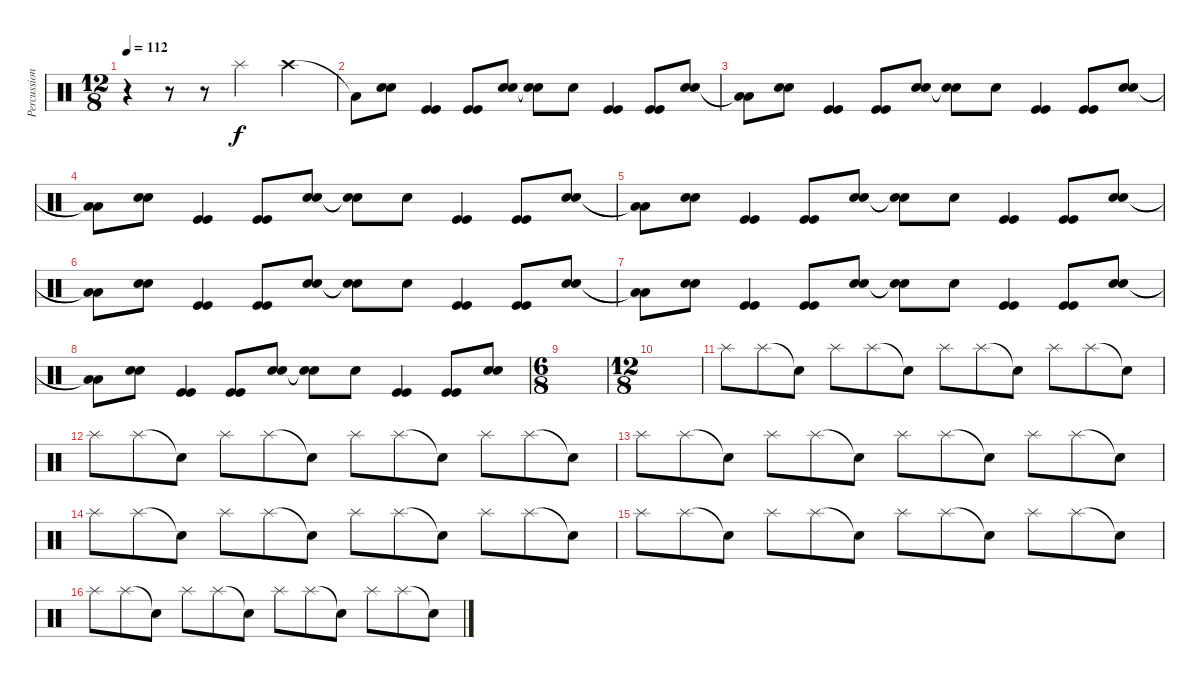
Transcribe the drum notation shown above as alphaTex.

\track ("Percussions" "Percussion") {instrument percussion}
\staff {score}
\articulation defaults
\ts (12 8)
\tempo 112
\clef neutral
\ks c
r.4{dy f} r.8 r.8 "Splash (hit)".2 "Crash high (hit)".2 |
"Low Floor Tom (hit)"{t}.8 ("Snare (hit) 2" "Snare (hit) 2").8 ("Kick (hit)" "Kick (hit)").4 ("Kick (hit)" "Kick (hit)").8 ("Snare (hit) 2" "Snare (hit) 2").8 ("Snare (hit)"{t} "Snare (hit)"{t}).8 "Snare (hit) 2".8 ("Kick (hit)" "Kick (hit)").4 ("Kick (hit)" "Kick (hit)").8 ("Snare (hit) 2" "Snare (hit) 2").8 |
("Low Floor Tom (hit)"{t} "Low Floor Tom (hit)"{t}).8 ("Snare (hit) 2" "Snare (hit) 2").8 ("Kick (hit)" "Kick (hit)").4 ("Kick (hit)" "Kick (hit)").8 ("Snare (hit) 2" "Snare (hit) 2").8 ("Snare (hit)"{t} "Snare (hit)"{t}).8 "Snare (hit) 2".8 ("Kick (hit)" "Kick (hit)").4 ("Kick (hit)" "Kick (hit)").8 ("Snare (hit) 2" "Snare (hit) 2").8 |
("Low Floor Tom (hit)"{t} "Low Floor Tom (hit)"{t}).8 ("Snare (hit) 2" "Snare (hit) 2").8 ("Kick (hit)" "Kick (hit)").4 ("Kick (hit)" "Kick (hit)").8 ("Snare (hit) 2" "Snare (hit) 2").8 ("Snare (hit)"{t} "Snare (hit)"{t}).8 "Snare (hit) 2".8 ("Kick (hit)" "Kick (hit)").4 ("Kick (hit)" "Kick (hit)").8 ("Snare (hit) 2" "Snare (hit) 2").8 |
("Low Floor Tom (hit)"{t} "Low Floor Tom (hit)"{t}).8 ("Snare (hit) 2" "Snare (hit) 2").8 ("Kick (hit)" "Kick (hit)").4 ("Kick (hit)" "Kick (hit)").8 ("Snare (hit) 2" "Snare (hit) 2").8 ("Snare (hit)"{t} "Snare (hit)"{t}).8 "Snare (hit) 2".8 ("Kick (hit)" "Kick (hit)").4 ("Kick (hit)" "Kick (hit)").8 ("Snare (hit) 2" "Snare (hit) 2").8 |
("Low Floor Tom (hit)"{t} "Low Floor Tom (hit)"{t}).8 ("Snare (hit) 2" "Snare (hit) 2").8 ("Kick (hit)" "Kick (hit)").4 ("Kick (hit)" "Kick (hit)").8 ("Snare (hit) 2" "Snare (hit) 2").8 ("Snare (hit)"{t} "Snare (hit)"{t}).8 "Snare (hit) 2".8 ("Kick (hit)" "Kick (hit)").4 ("Kick (hit)" "Kick (hit)").8 ("Snare (hit) 2" "Snare (hit) 2").8 |
("Low Floor Tom (hit)"{t} "Low Floor Tom (hit)"{t}).8 ("Snare (hit) 2" "Snare (hit) 2").8 ("Kick (hit)" "Kick (hit)").4 ("Kick (hit)" "Kick (hit)").8 ("Snare (hit) 2" "Snare (hit) 2").8 ("Snare (hit)"{t} "Snare (hit)"{t}).8 "Snare (hit) 2".8 ("Kick (hit)" "Kick (hit)").4 ("Kick (hit)" "Kick (hit)").8 ("Snare (hit) 2" "Snare (hit) 2").8 |
("Low Floor Tom (hit)"{t} "Low Floor Tom (hit)"{t}).8 ("Snare (hit) 2" "Snare (hit) 2").8 ("Kick (hit)" "Kick (hit)").4 ("Kick (hit)" "Kick (hit)").8 ("Snare (hit) 2" "Snare (hit) 2").8 ("Snare (hit)"{t} "Snare (hit)"{t}).8 "Snare (hit) 2".8 ("Kick (hit)" "Kick (hit)").4 ("Kick (hit)" "Kick (hit)").8 ("Snare (hit) 2" "Snare (hit) 2").8 |
\ts (6 8)
|
\ts (12 8)
|
"Splash (hit)".8 "Splash (hit)".8 "Snare (hit)"{t}.8 "Splash (hit)".8 "Splash (hit)".8 "Snare (hit)"{t}.8 "Splash (hit)".8 "Splash (hit)".8 "Snare (hit)"{t}.8 "Splash (hit)".8 "Splash (hit)".8 "Snare (hit)"{t}.8 |
"Splash (hit)".8 "Splash (hit)".8 "Snare (hit)"{t}.8 "Splash (hit)".8 "Splash (hit)".8 "Snare (hit)"{t}.8 "Splash (hit)".8 "Splash (hit)".8 "Snare (hit)"{t}.8 "Splash (hit)".8 "Splash (hit)".8 "Snare (hit)"{t}.8 |
"Splash (hit)".8 "Splash (hit)".8 "Snare (hit)"{t}.8 "Splash (hit)".8 "Splash (hit)".8 "Snare (hit)"{t}.8 "Splash (hit)".8 "Splash (hit)".8 "Snare (hit)"{t}.8 "Splash (hit)".8 "Splash (hit)".8 "Snare (hit)"{t}.8 |
"Splash (hit)".8 "Splash (hit)".8 "Snare (hit)"{t}.8 "Splash (hit)".8 "Splash (hit)".8 "Snare (hit)"{t}.8 "Splash (hit)".8 "Splash (hit)".8 "Snare (hit)"{t}.8 "Splash (hit)".8 "Splash (hit)".8 "Snare (hit)"{t}.8 |
"Splash (hit)".8 "Splash (hit)".8 "Snare (hit)"{t}.8 "Splash (hit)".8 "Splash (hit)".8 "Snare (hit)"{t}.8 "Splash (hit)".8 "Splash (hit)".8 "Snare (hit)"{t}.8 "Splash (hit)".8 "Splash (hit)".8 "Snare (hit)"{t}.8 |
"Splash (hit)".8 "Splash (hit)".8 "Snare (hit)"{t}.8 "Splash (hit)".8 "Splash (hit)".8 "Snare (hit)"{t}.8 "Splash (hit)".8 "Splash (hit)".8 "Snare (hit)"{t}.8 "Splash (hit)".8 "Splash (hit)".8 "Snare (hit)"{t}.8
